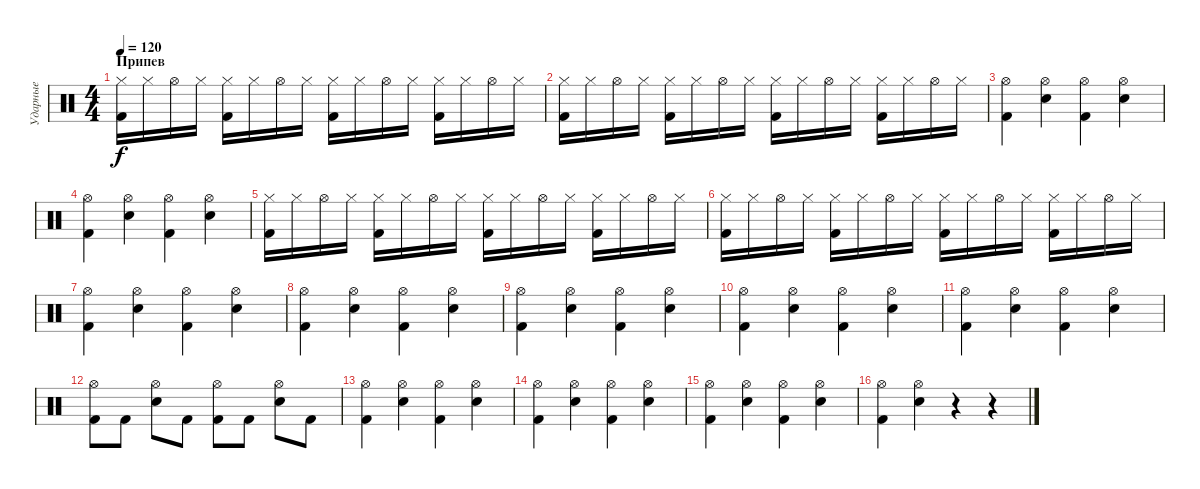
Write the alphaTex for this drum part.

\track ("Ударные" "Ударные") {instrument percussion}
\staff {score}
\articulation defaults
\ts (4 4)
\section ("" "Припев")
\tempo 120
\clef neutral
\ks c
("Hi-Hat (closed)" "Kick (hit) 2").16{dy f} "Hi-Hat (closed)".16 "Hi-Hat (open)".16 "Hi-Hat (closed)".16 ("Hi-Hat (closed)" "Kick (hit) 2").16 "Hi-Hat (closed)".16 "Hi-Hat (open)".16 "Hi-Hat (closed)".16 ("Hi-Hat (closed)" "Kick (hit) 2").16 "Hi-Hat (closed)".16 "Hi-Hat (open)".16 "Hi-Hat (closed)".16 ("Hi-Hat (closed)" "Kick (hit) 2").16 "Hi-Hat (closed)".16 "Hi-Hat (open)".16 "Hi-Hat (closed)".16 |
("Hi-Hat (closed)" "Kick (hit) 2").16 "Hi-Hat (closed)".16 "Hi-Hat (open)".16 "Hi-Hat (closed)".16 ("Hi-Hat (closed)" "Kick (hit) 2").16 "Hi-Hat (closed)".16 "Hi-Hat (open)".16 "Hi-Hat (closed)".16 ("Hi-Hat (closed)" "Kick (hit) 2").16 "Hi-Hat (closed)".16 "Hi-Hat (open)".16 "Hi-Hat (closed)".16 ("Hi-Hat (closed)" "Kick (hit) 2").16 "Hi-Hat (closed)".16 "Hi-Hat (open)".16 "Hi-Hat (closed)".16 |
("Hi-Hat (open)" "Kick (hit) 2").4 ("Hi-Hat (open)" "Snare (hit) 2").4 ("Hi-Hat (open)" "Kick (hit) 2").4 ("Hi-Hat (open)" "Snare (hit) 2").4 |
("Hi-Hat (open)" "Kick (hit) 2").4 ("Hi-Hat (open)" "Snare (hit) 2").4 ("Hi-Hat (open)" "Kick (hit) 2").4 ("Hi-Hat (open)" "Snare (hit) 2").4 |
("Hi-Hat (closed)" "Kick (hit) 2").16 "Hi-Hat (closed)".16 "Hi-Hat (open)".16 "Hi-Hat (closed)".16 ("Hi-Hat (closed)" "Kick (hit) 2").16 "Hi-Hat (closed)".16 "Hi-Hat (open)".16 "Hi-Hat (closed)".16 ("Hi-Hat (closed)" "Kick (hit) 2").16 "Hi-Hat (closed)".16 "Hi-Hat (open)".16 "Hi-Hat (closed)".16 ("Hi-Hat (closed)" "Kick (hit) 2").16 "Hi-Hat (closed)".16 "Hi-Hat (open)".16 "Hi-Hat (closed)".16 |
("Hi-Hat (closed)" "Kick (hit) 2").16 "Hi-Hat (closed)".16 "Hi-Hat (open)".16 "Hi-Hat (closed)".16 ("Hi-Hat (closed)" "Kick (hit) 2").16 "Hi-Hat (closed)".16 "Hi-Hat (open)".16 "Hi-Hat (closed)".16 ("Hi-Hat (closed)" "Kick (hit) 2").16 "Hi-Hat (closed)".16 "Hi-Hat (open)".16 "Hi-Hat (closed)".16 ("Hi-Hat (closed)" "Kick (hit) 2").16 "Hi-Hat (closed)".16 "Hi-Hat (open)".16 "Hi-Hat (closed)".16 |
("Hi-Hat (open)" "Kick (hit) 2").4 ("Hi-Hat (open)" "Snare (hit) 2").4 ("Hi-Hat (open)" "Kick (hit) 2").4 ("Hi-Hat (open)" "Snare (hit) 2").4 |
("Hi-Hat (open)" "Kick (hit) 2").4 ("Hi-Hat (open)" "Snare (hit) 2").4 ("Hi-Hat (open)" "Kick (hit) 2").4 ("Hi-Hat (open)" "Snare (hit) 2").4 |
("Hi-Hat (open)" "Kick (hit) 2").4 ("Hi-Hat (open)" "Snare (hit) 2").4 ("Hi-Hat (open)" "Kick (hit) 2").4 ("Hi-Hat (open)" "Snare (hit) 2").4 |
("Hi-Hat (open)" "Kick (hit) 2").4 ("Hi-Hat (open)" "Snare (hit) 2").4 ("Hi-Hat (open)" "Kick (hit) 2").4 ("Hi-Hat (open)" "Snare (hit) 2").4 |
("Hi-Hat (open)" "Kick (hit) 2").4 ("Hi-Hat (open)" "Snare (hit) 2").4 ("Hi-Hat (open)" "Kick (hit) 2").4 ("Hi-Hat (open)" "Snare (hit) 2").4 |
("Hi-Hat (open)" "Kick (hit) 2").8 "Kick (hit) 2".8 ("Hi-Hat (open)" "Snare (hit) 2").8 "Kick (hit) 2".8 ("Hi-Hat (open)" "Kick (hit) 2").8 "Kick (hit) 2".8 ("Hi-Hat (open)" "Snare (hit) 2").8 "Kick (hit) 2".8 |
("Hi-Hat (open)" "Kick (hit) 2").4 ("Hi-Hat (open)" "Snare (hit) 2").4 ("Hi-Hat (open)" "Kick (hit) 2").4 ("Hi-Hat (open)" "Snare (hit) 2").4 |
("Hi-Hat (open)" "Kick (hit) 2").4 ("Hi-Hat (open)" "Snare (hit) 2").4 ("Hi-Hat (open)" "Kick (hit) 2").4 ("Hi-Hat (open)" "Snare (hit) 2").4 |
("Hi-Hat (open)" "Kick (hit) 2").4 ("Hi-Hat (open)" "Snare (hit) 2").4 ("Hi-Hat (open)" "Kick (hit) 2").4 ("Hi-Hat (open)" "Snare (hit) 2").4 |
("Hi-Hat (open)" "Kick (hit) 2").4 ("Hi-Hat (open)" "Snare (hit) 2").4 r.4 r.4
